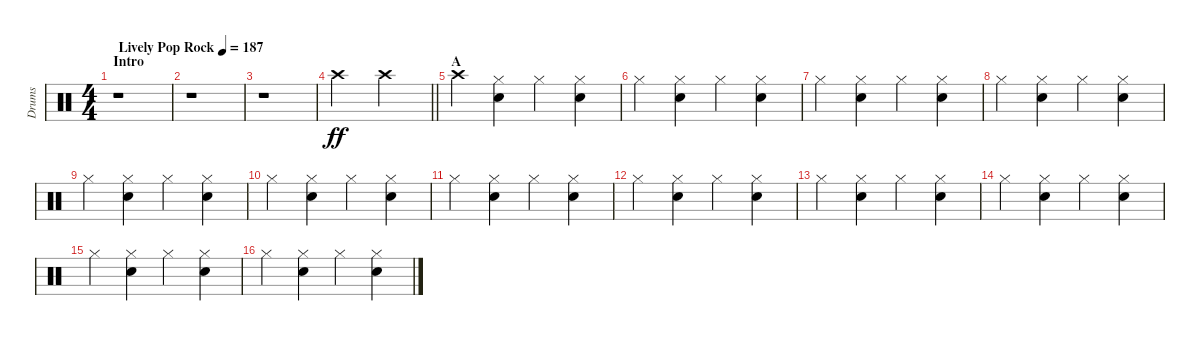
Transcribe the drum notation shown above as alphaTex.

\track ("Drums" "Drums") {instrument percussion}
\staff {score}
\articulation defaults
\ts (4 4)
\section ("" "Intro")
\tempo (187 "Lively Pop Rock")
\clef neutral
\ks c
r.1{dy ff} |
r.1 |
r.1 |
\barLineRight lightlight "Crash high (hit)".2 "Crash high (hit)".2
|
\section ("" "A")
"Crash high (hit)".4 ("Hi-Hat (closed)" "Snare (hit) 2").4 "Hi-Hat (closed)".4 ("Hi-Hat (closed)" "Snare (hit) 2").4 |
"Hi-Hat (closed)".4 ("Hi-Hat (closed)" "Snare (hit) 2").4 "Hi-Hat (closed)".4 ("Hi-Hat (closed)" "Snare (hit) 2").4 |
"Hi-Hat (closed)".4 ("Hi-Hat (closed)" "Snare (hit) 2").4 "Hi-Hat (closed)".4 ("Hi-Hat (closed)" "Snare (hit) 2").4 |
"Hi-Hat (closed)".4 ("Hi-Hat (closed)" "Snare (hit) 2").4 "Hi-Hat (closed)".4 ("Hi-Hat (closed)" "Snare (hit) 2").4 |
"Hi-Hat (closed)".4 ("Hi-Hat (closed)" "Snare (hit) 2").4 "Hi-Hat (closed)".4 ("Hi-Hat (closed)" "Snare (hit) 2").4 |
"Hi-Hat (closed)".4 ("Hi-Hat (closed)" "Snare (hit) 2").4 "Hi-Hat (closed)".4 ("Hi-Hat (closed)" "Snare (hit) 2").4 |
"Hi-Hat (closed)".4 ("Hi-Hat (closed)" "Snare (hit) 2").4 "Hi-Hat (closed)".4 ("Hi-Hat (closed)" "Snare (hit) 2").4 |
"Hi-Hat (closed)".4 ("Hi-Hat (closed)" "Snare (hit) 2").4 "Hi-Hat (closed)".4 ("Hi-Hat (closed)" "Snare (hit) 2").4 |
"Hi-Hat (closed)".4 ("Hi-Hat (closed)" "Snare (hit) 2").4 "Hi-Hat (closed)".4 ("Hi-Hat (closed)" "Snare (hit) 2").4 |
"Hi-Hat (closed)".4 ("Hi-Hat (closed)" "Snare (hit) 2").4 "Hi-Hat (closed)".4 ("Hi-Hat (closed)" "Snare (hit) 2").4 |
"Hi-Hat (closed)".4 ("Hi-Hat (closed)" "Snare (hit) 2").4 "Hi-Hat (closed)".4 ("Hi-Hat (closed)" "Snare (hit) 2").4 |
"Hi-Hat (closed)".4 ("Hi-Hat (closed)" "Snare (hit) 2").4 "Hi-Hat (closed)".4 ("Hi-Hat (closed)" "Snare (hit) 2").4
